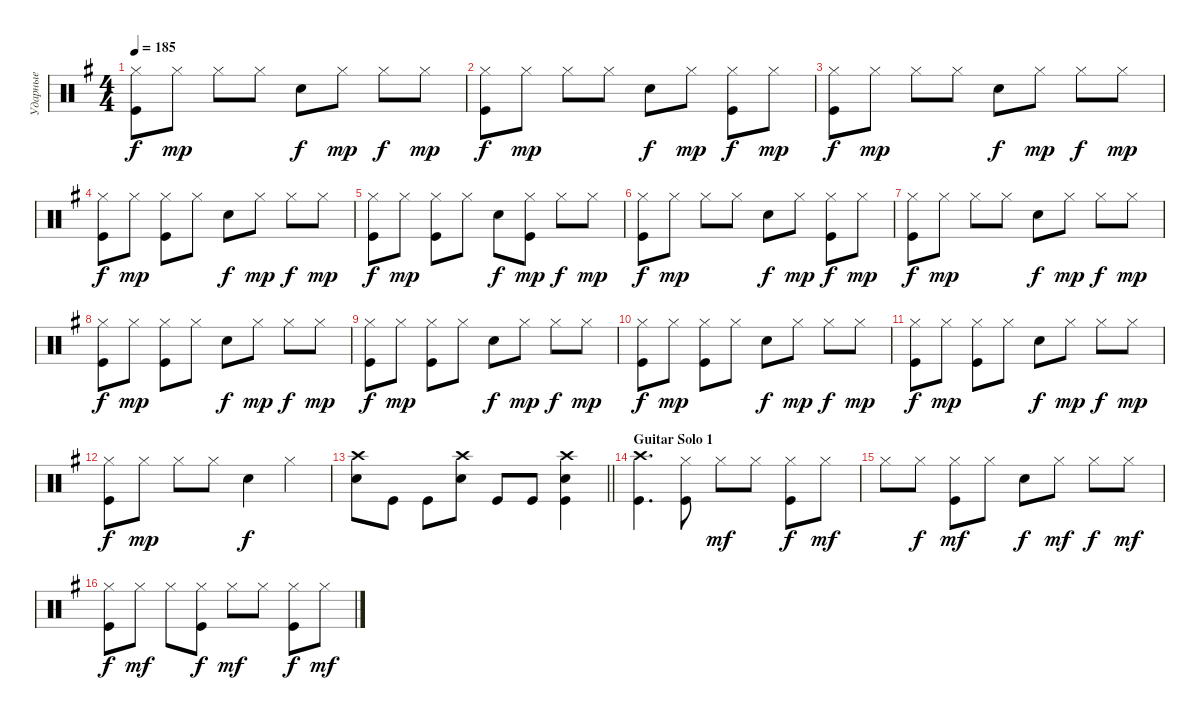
\track ("Ударные" "Ударные") {instrument percussion}
\staff {score}
\articulation defaults
\ts (4 4)
\tempo 185
\clef neutral
\ks eminor
("Hi-Hat (closed)" "Kick (hit)").8{dy f} "Hi-Hat (closed)".8{dy mp} "Hi-Hat (closed)".8 "Hi-Hat (closed)".8 "Snare (hit) 2".8{dy f} "Hi-Hat (closed)".8{dy mp} "Hi-Hat (closed)".8{dy f} "Hi-Hat (closed)".8{dy mp} |
("Hi-Hat (closed)" "Kick (hit)").8{dy f} "Hi-Hat (closed)".8{dy mp} "Hi-Hat (closed)".8 "Hi-Hat (closed)".8 "Snare (hit) 2".8{dy f} "Hi-Hat (closed)".8{dy mp} ("Hi-Hat (closed)" "Kick (hit)").8{dy f} "Hi-Hat (closed)".8{dy mp} |
("Hi-Hat (closed)" "Kick (hit)").8{dy f} "Hi-Hat (closed)".8{dy mp} "Hi-Hat (closed)".8 "Hi-Hat (closed)".8 "Snare (hit) 2".8{dy f} "Hi-Hat (closed)".8{dy mp} "Hi-Hat (closed)".8{dy f} "Hi-Hat (closed)".8{dy mp} |
("Hi-Hat (closed)" "Kick (hit)").8{dy f} "Hi-Hat (closed)".8{dy mp} ("Hi-Hat (closed)" "Kick (hit)").8 "Hi-Hat (closed)".8 "Snare (hit) 2".8{dy f} "Hi-Hat (closed)".8{dy mp} "Hi-Hat (closed)".8{dy f} "Hi-Hat (closed)".8{dy mp} |
("Hi-Hat (closed)" "Kick (hit)").8{dy f} "Hi-Hat (closed)".8{dy mp} ("Hi-Hat (closed)" "Kick (hit)").8 "Hi-Hat (closed)".8 "Snare (hit) 2".8{dy f} ("Hi-Hat (closed)" "Kick (hit)").8{dy mp} "Hi-Hat (closed)".8{dy f} "Hi-Hat (closed)".8{dy mp} |
("Hi-Hat (closed)" "Kick (hit)").8{dy f} "Hi-Hat (closed)".8{dy mp} "Hi-Hat (closed)".8 "Hi-Hat (closed)".8 "Snare (hit) 2".8{dy f} "Hi-Hat (closed)".8{dy mp} ("Hi-Hat (closed)" "Kick (hit)").8{dy f} "Hi-Hat (closed)".8{dy mp} |
("Hi-Hat (closed)" "Kick (hit)").8{dy f} "Hi-Hat (closed)".8{dy mp} "Hi-Hat (closed)".8 "Hi-Hat (closed)".8 "Snare (hit) 2".8{dy f} "Hi-Hat (closed)".8{dy mp} "Hi-Hat (closed)".8{dy f} "Hi-Hat (closed)".8{dy mp} |
("Hi-Hat (closed)" "Kick (hit)").8{dy f} "Hi-Hat (closed)".8{dy mp} ("Hi-Hat (closed)" "Kick (hit)").8 "Hi-Hat (closed)".8 "Snare (hit) 2".8{dy f} "Hi-Hat (closed)".8{dy mp} "Hi-Hat (closed)".8{dy f} "Hi-Hat (closed)".8{dy mp} |
("Hi-Hat (closed)" "Kick (hit)").8{dy f} "Hi-Hat (closed)".8{dy mp} ("Hi-Hat (closed)" "Kick (hit)").8 "Hi-Hat (closed)".8 "Snare (hit) 2".8{dy f} "Hi-Hat (closed)".8{dy mp} "Hi-Hat (closed)".8{dy f} "Hi-Hat (closed)".8{dy mp} |
("Hi-Hat (closed)" "Kick (hit)").8{dy f} "Hi-Hat (closed)".8{dy mp} ("Hi-Hat (closed)" "Kick (hit)").8 "Hi-Hat (closed)".8 "Snare (hit) 2".8{dy f} "Hi-Hat (closed)".8{dy mp} "Hi-Hat (closed)".8{dy f} "Hi-Hat (closed)".8{dy mp} |
("Hi-Hat (closed)" "Kick (hit)").8{dy f} "Hi-Hat (closed)".8{dy mp} ("Hi-Hat (closed)" "Kick (hit)").8 "Hi-Hat (closed)".8 "Snare (hit) 2".8{dy f} "Hi-Hat (closed)".8{dy mp} "Hi-Hat (closed)".8{dy f} "Hi-Hat (closed)".8{dy mp} |
("Hi-Hat (closed)" "Kick (hit)").8{dy f} "Hi-Hat (closed)".8{dy mp} "Hi-Hat (closed)".8 "Hi-Hat (closed)".8 "Snare (hit) 2".4{dy f} "Hi-Hat (closed)".4 |
\barLineRight lightlight
("Snare (hit) 2" "Crash high (hit)").8 "Kick (hit)".8 "Kick (hit)".8 ("Snare (hit) 2" "Crash high (hit)").8 "Kick (hit)".8 "Kick (hit)".8 ("Snare (hit) 2" "Kick (hit)" "Crash high (hit)").4 |
\section ("" "Guitar Solo 1")
("Crash high (hit)" "Kick (hit)").4{d} ("Hi-Hat (closed)" "Kick (hit)").8 "Hi-Hat (closed)".8{dy mf} "Hi-Hat (closed)".8 ("Hi-Hat (closed)" "Kick (hit)").8{dy f} "Hi-Hat (closed)".8{dy mf} |
"Hi-Hat (closed)".8 "Hi-Hat (closed)".8{dy f} ("Hi-Hat (closed)" "Kick (hit)").8{dy mf} "Hi-Hat (closed)".8 "Snare (hit) 2".8{dy f} "Hi-Hat (closed)".8{dy mf} "Hi-Hat (closed)".8{dy f} "Hi-Hat (closed)".8{dy mf} |
("Hi-Hat (closed)" "Kick (hit)").8{dy f} "Hi-Hat (closed)".8{dy mf} "Hi-Hat (closed)".8 ("Hi-Hat (closed)" "Kick (hit)").8{dy f} "Hi-Hat (closed)".8{dy mf} "Hi-Hat (closed)".8 ("Hi-Hat (closed)" "Kick (hit)").8{dy f} "Hi-Hat (closed)".8{dy mf}
